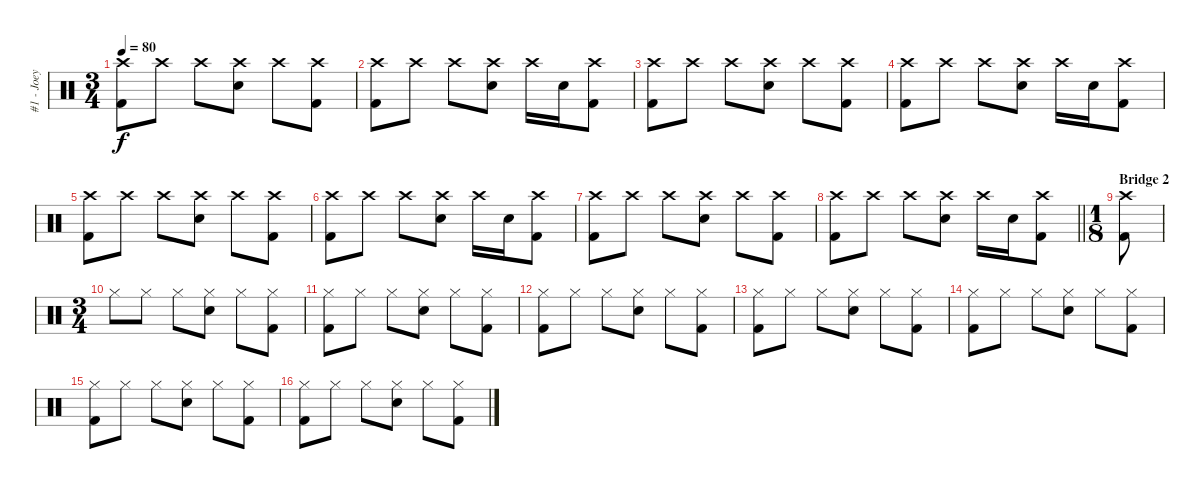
\track ("#1 - Joey Jordison" "#1 - Joey ") {instrument percussion}
\staff {score}
\articulation defaults
\ts (3 4)
\tempo 80
\clef neutral
\ks c
("Crash high (hit)" "Kick (hit) 2").8{dy f} "Crash high (hit)".8 "Crash high (hit)".8 ("Crash high (hit)" "Snare (hit) 2").8 "Crash high (hit)".8 ("Crash high (hit)" "Kick (hit) 2").8 |
("Crash high (hit)" "Kick (hit) 2").8 "Crash high (hit)".8 "Crash high (hit)".8 ("Crash high (hit)" "Snare (hit) 2").8 "Crash high (hit)".16 "Snare (hit) 2".16 ("Crash high (hit)" "Kick (hit) 2").8 |
("Crash high (hit)" "Kick (hit) 2").8 "Crash high (hit)".8 "Crash high (hit)".8 ("Crash high (hit)" "Snare (hit) 2").8 "Crash high (hit)".8 ("Crash high (hit)" "Kick (hit) 2").8 |
("Crash high (hit)" "Kick (hit) 2").8 "Crash high (hit)".8 "Crash high (hit)".8 ("Crash high (hit)" "Snare (hit) 2").8 "Crash high (hit)".16 "Snare (hit) 2".16 ("Crash high (hit)" "Kick (hit) 2").8 |
("Crash high (hit)" "Kick (hit) 2").8 "Crash high (hit)".8 "Crash high (hit)".8 ("Crash high (hit)" "Snare (hit) 2").8 "Crash high (hit)".8 ("Crash high (hit)" "Kick (hit) 2").8 |
("Crash high (hit)" "Kick (hit) 2").8 "Crash high (hit)".8 "Crash high (hit)".8 ("Crash high (hit)" "Snare (hit) 2").8 "Crash high (hit)".16 "Snare (hit) 2".16 ("Crash high (hit)" "Kick (hit) 2").8 |
("Crash high (hit)" "Kick (hit) 2").8 "Crash high (hit)".8 "Crash high (hit)".8 ("Crash high (hit)" "Snare (hit) 2").8 "Crash high (hit)".8 ("Crash high (hit)" "Kick (hit) 2").8 |
\barLineRight lightlight
("Crash high (hit)" "Kick (hit) 2").8 "Crash high (hit)".8 "Crash high (hit)".8 ("Crash high (hit)" "Snare (hit) 2").8 "Crash high (hit)".16 "Snare (hit) 2".16 ("Crash high (hit)" "Kick (hit) 2").8 |
\ts (1 8)
\section ("" "Bridge 2")
("Crash high (hit)" "Kick (hit) 2").8 |
\ts (3 4)
"Hi-Hat (closed)".8 "Hi-Hat (closed)".8 "Hi-Hat (closed)".8 ("Hi-Hat (closed)" "Snare (hit) 2").8 "Hi-Hat (closed)".8 ("Hi-Hat (closed)" "Kick (hit) 2").8 |
("Hi-Hat (closed)" "Kick (hit) 2").8 "Hi-Hat (closed)".8 "Hi-Hat (closed)".8 ("Hi-Hat (closed)" "Snare (hit) 2").8 "Hi-Hat (closed)".8 ("Hi-Hat (closed)" "Kick (hit) 2").8 |
("Hi-Hat (closed)" "Kick (hit) 2").8 "Hi-Hat (closed)".8 "Hi-Hat (closed)".8 ("Hi-Hat (closed)" "Snare (hit) 2").8 "Hi-Hat (closed)".8 ("Hi-Hat (closed)" "Kick (hit) 2").8 |
("Hi-Hat (closed)" "Kick (hit) 2").8 "Hi-Hat (closed)".8 "Hi-Hat (closed)".8 ("Hi-Hat (closed)" "Snare (hit) 2").8 "Hi-Hat (closed)".8 ("Hi-Hat (closed)" "Kick (hit) 2").8 |
("Hi-Hat (closed)" "Kick (hit) 2").8 "Hi-Hat (closed)".8 "Hi-Hat (closed)".8 ("Hi-Hat (closed)" "Snare (hit) 2").8 "Hi-Hat (closed)".8 ("Hi-Hat (closed)" "Kick (hit) 2").8 |
("Hi-Hat (closed)" "Kick (hit) 2").8 "Hi-Hat (closed)".8 "Hi-Hat (closed)".8 ("Hi-Hat (closed)" "Snare (hit) 2").8 "Hi-Hat (closed)".8 ("Hi-Hat (closed)" "Kick (hit) 2").8 |
("Hi-Hat (closed)" "Kick (hit) 2").8 "Hi-Hat (closed)".8 "Hi-Hat (closed)".8 ("Hi-Hat (closed)" "Snare (hit) 2").8 "Hi-Hat (closed)".8 ("Hi-Hat (closed)" "Kick (hit) 2").8
